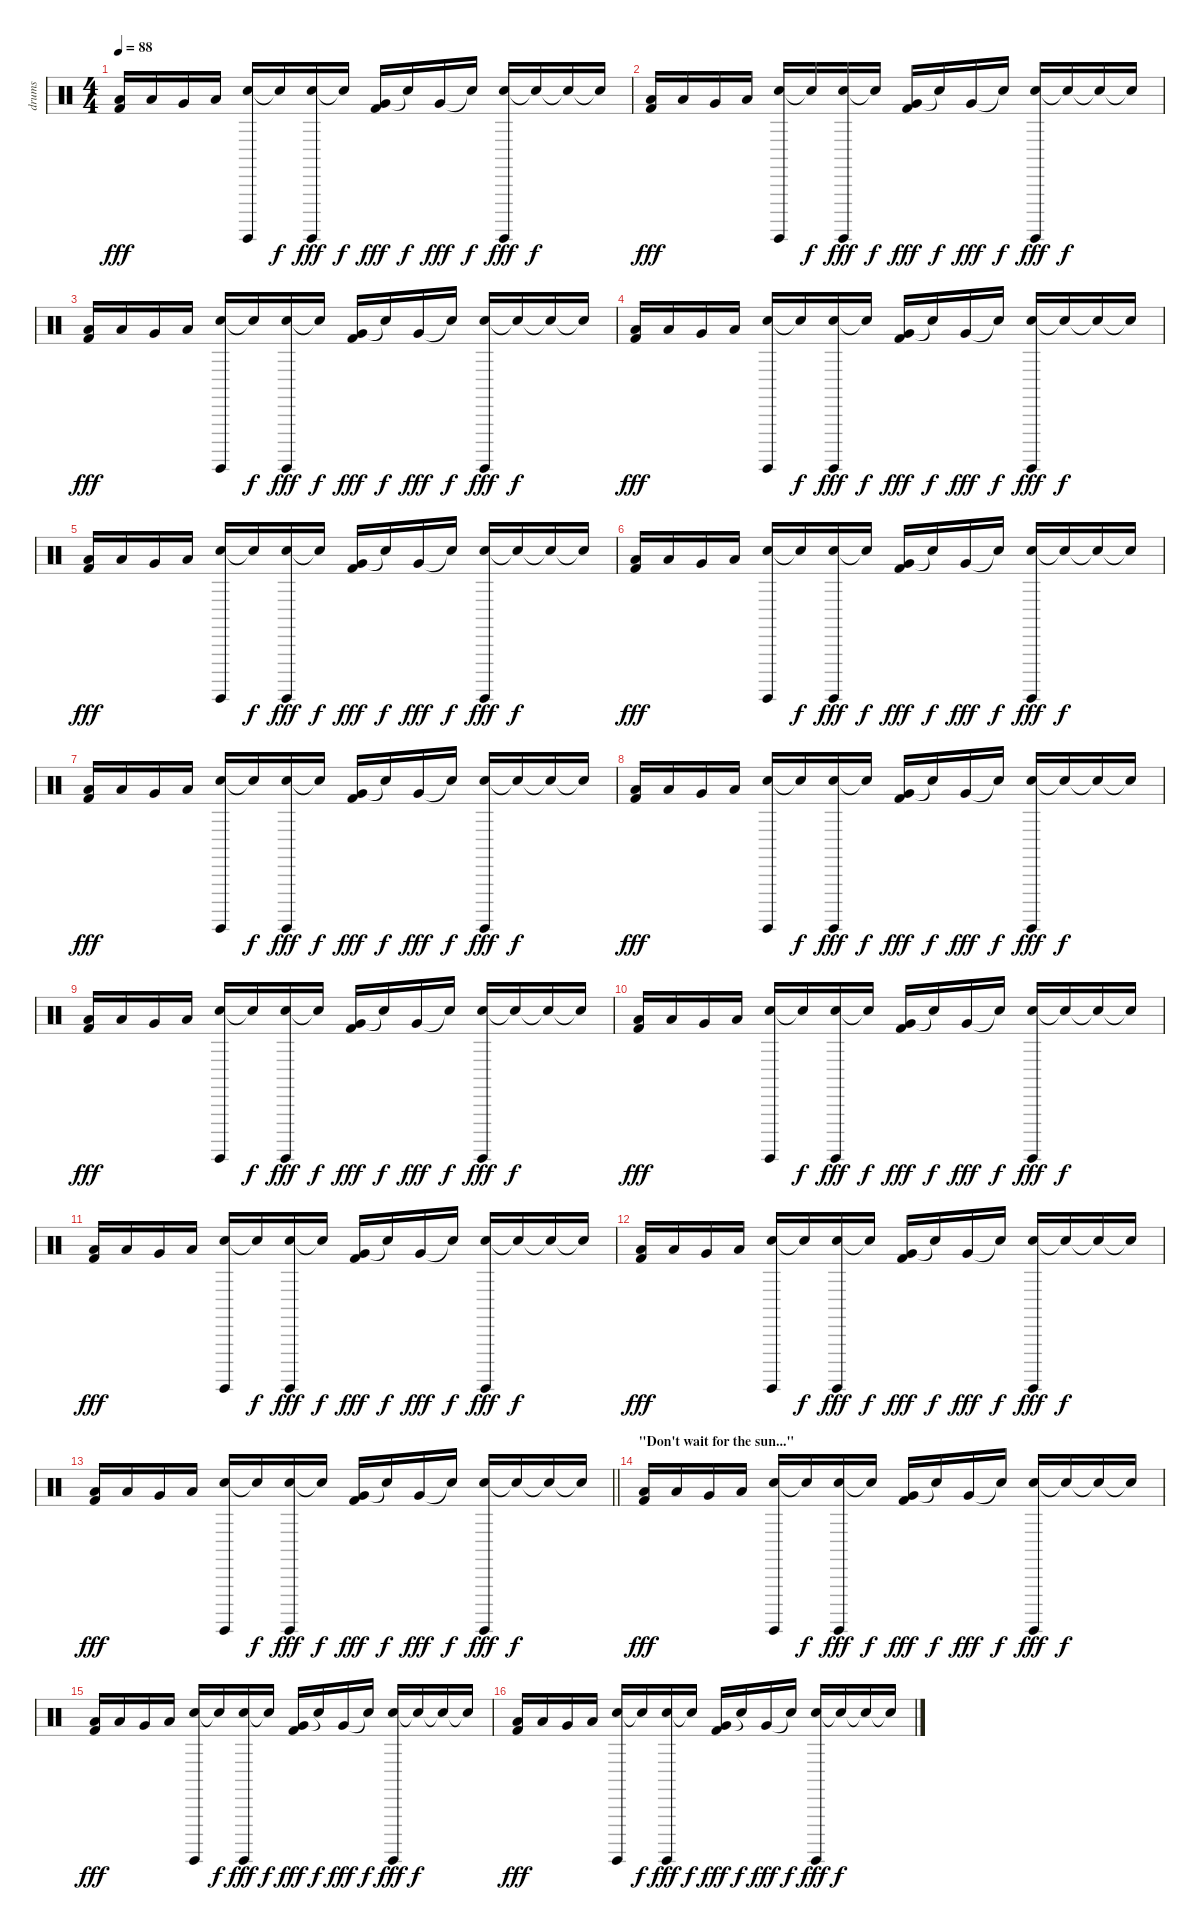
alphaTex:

\track ("drums" "drums") {instrument percussion}
\staff {score}
\articulation defaults
\ts (4 4)
\tempo 88
\clef neutral
\ks c
("Low Tom (hit)" "Kick (hit) 2").16{dy fff} "Low Tom (hit)".16 "Very Low Tom (hit)".16 "Low Tom (hit)".16 ("Electric Snare (hit)" "Surdo (hit)").16 "Snare (hit)"{t}.16{dy f} ("Electric Snare (hit)" "Surdo (hit)").16{dy fff} "Snare (hit)"{t}.16{dy f} ("Very Low Tom (hit)" "Kick (hit) 2").16{dy fff} "Snare (hit)"{t}.16{dy f} "Very Low Tom (hit)".16{dy fff} "Snare (hit)"{t}.16{dy f} ("Electric Snare (hit)" "Surdo (hit)").16{dy fff} "Snare (hit)"{t}.16{dy f} "Snare (hit)"{t}.16 "Snare (hit)"{t}.16 |
("Low Tom (hit)" "Kick (hit) 2").16{dy fff} "Low Tom (hit)".16 "Very Low Tom (hit)".16 "Low Tom (hit)".16 ("Electric Snare (hit)" "Surdo (hit)").16 "Snare (hit)"{t}.16{dy f} ("Electric Snare (hit)" "Surdo (hit)").16{dy fff} "Snare (hit)"{t}.16{dy f} ("Very Low Tom (hit)" "Kick (hit) 2").16{dy fff} "Snare (hit)"{t}.16{dy f} "Very Low Tom (hit)".16{dy fff} "Snare (hit)"{t}.16{dy f} ("Electric Snare (hit)" "Surdo (hit)").16{dy fff} "Snare (hit)"{t}.16{dy f} "Snare (hit)"{t}.16 "Snare (hit)"{t}.16 |
("Low Tom (hit)" "Kick (hit) 2").16{dy fff} "Low Tom (hit)".16 "Very Low Tom (hit)".16 "Low Tom (hit)".16 ("Electric Snare (hit)" "Surdo (hit)").16 "Snare (hit)"{t}.16{dy f} ("Electric Snare (hit)" "Surdo (hit)").16{dy fff} "Snare (hit)"{t}.16{dy f} ("Very Low Tom (hit)" "Kick (hit) 2").16{dy fff} "Snare (hit)"{t}.16{dy f} "Very Low Tom (hit)".16{dy fff} "Snare (hit)"{t}.16{dy f} ("Electric Snare (hit)" "Surdo (hit)").16{dy fff} "Snare (hit)"{t}.16{dy f} "Snare (hit)"{t}.16 "Snare (hit)"{t}.16 |
("Low Tom (hit)" "Kick (hit) 2").16{dy fff} "Low Tom (hit)".16 "Very Low Tom (hit)".16 "Low Tom (hit)".16 ("Electric Snare (hit)" "Surdo (hit)").16 "Snare (hit)"{t}.16{dy f} ("Electric Snare (hit)" "Surdo (hit)").16{dy fff} "Snare (hit)"{t}.16{dy f} ("Very Low Tom (hit)" "Kick (hit) 2").16{dy fff} "Snare (hit)"{t}.16{dy f} "Very Low Tom (hit)".16{dy fff} "Snare (hit)"{t}.16{dy f} ("Electric Snare (hit)" "Surdo (hit)").16{dy fff} "Snare (hit)"{t}.16{dy f} "Snare (hit)"{t}.16 "Snare (hit)"{t}.16 |
("Low Tom (hit)" "Kick (hit) 2").16{dy fff} "Low Tom (hit)".16 "Very Low Tom (hit)".16 "Low Tom (hit)".16 ("Electric Snare (hit)" "Surdo (hit)").16 "Snare (hit)"{t}.16{dy f} ("Electric Snare (hit)" "Surdo (hit)").16{dy fff} "Snare (hit)"{t}.16{dy f} ("Very Low Tom (hit)" "Kick (hit) 2").16{dy fff} "Snare (hit)"{t}.16{dy f} "Very Low Tom (hit)".16{dy fff} "Snare (hit)"{t}.16{dy f} ("Electric Snare (hit)" "Surdo (hit)").16{dy fff} "Snare (hit)"{t}.16{dy f} "Snare (hit)"{t}.16 "Snare (hit)"{t}.16 |
("Low Tom (hit)" "Kick (hit) 2").16{dy fff} "Low Tom (hit)".16 "Very Low Tom (hit)".16 "Low Tom (hit)".16 ("Electric Snare (hit)" "Surdo (hit)").16 "Snare (hit)"{t}.16{dy f} ("Electric Snare (hit)" "Surdo (hit)").16{dy fff} "Snare (hit)"{t}.16{dy f} ("Very Low Tom (hit)" "Kick (hit) 2").16{dy fff} "Snare (hit)"{t}.16{dy f} "Very Low Tom (hit)".16{dy fff} "Snare (hit)"{t}.16{dy f} ("Electric Snare (hit)" "Surdo (hit)").16{dy fff} "Snare (hit)"{t}.16{dy f} "Snare (hit)"{t}.16 "Snare (hit)"{t}.16 |
("Low Tom (hit)" "Kick (hit) 2").16{dy fff} "Low Tom (hit)".16 "Very Low Tom (hit)".16 "Low Tom (hit)".16 ("Electric Snare (hit)" "Surdo (hit)").16 "Snare (hit)"{t}.16{dy f} ("Electric Snare (hit)" "Surdo (hit)").16{dy fff} "Snare (hit)"{t}.16{dy f} ("Very Low Tom (hit)" "Kick (hit) 2").16{dy fff} "Snare (hit)"{t}.16{dy f} "Very Low Tom (hit)".16{dy fff} "Snare (hit)"{t}.16{dy f} ("Electric Snare (hit)" "Surdo (hit)").16{dy fff} "Snare (hit)"{t}.16{dy f} "Snare (hit)"{t}.16 "Snare (hit)"{t}.16 |
("Low Tom (hit)" "Kick (hit) 2").16{dy fff} "Low Tom (hit)".16 "Very Low Tom (hit)".16 "Low Tom (hit)".16 ("Electric Snare (hit)" "Surdo (hit)").16 "Snare (hit)"{t}.16{dy f} ("Electric Snare (hit)" "Surdo (hit)").16{dy fff} "Snare (hit)"{t}.16{dy f} ("Very Low Tom (hit)" "Kick (hit) 2").16{dy fff} "Snare (hit)"{t}.16{dy f} "Very Low Tom (hit)".16{dy fff} "Snare (hit)"{t}.16{dy f} ("Electric Snare (hit)" "Surdo (hit)").16{dy fff} "Snare (hit)"{t}.16{dy f} "Snare (hit)"{t}.16 "Snare (hit)"{t}.16 |
("Low Tom (hit)" "Kick (hit) 2").16{dy fff} "Low Tom (hit)".16 "Very Low Tom (hit)".16 "Low Tom (hit)".16 ("Electric Snare (hit)" "Surdo (hit)").16 "Snare (hit)"{t}.16{dy f} ("Electric Snare (hit)" "Surdo (hit)").16{dy fff} "Snare (hit)"{t}.16{dy f} ("Very Low Tom (hit)" "Kick (hit) 2").16{dy fff} "Snare (hit)"{t}.16{dy f} "Very Low Tom (hit)".16{dy fff} "Snare (hit)"{t}.16{dy f} ("Electric Snare (hit)" "Surdo (hit)").16{dy fff} "Snare (hit)"{t}.16{dy f} "Snare (hit)"{t}.16 "Snare (hit)"{t}.16 |
("Low Tom (hit)" "Kick (hit) 2").16{dy fff} "Low Tom (hit)".16 "Very Low Tom (hit)".16 "Low Tom (hit)".16 ("Electric Snare (hit)" "Surdo (hit)").16 "Snare (hit)"{t}.16{dy f} ("Electric Snare (hit)" "Surdo (hit)").16{dy fff} "Snare (hit)"{t}.16{dy f} ("Very Low Tom (hit)" "Kick (hit) 2").16{dy fff} "Snare (hit)"{t}.16{dy f} "Very Low Tom (hit)".16{dy fff} "Snare (hit)"{t}.16{dy f} ("Electric Snare (hit)" "Surdo (hit)").16{dy fff} "Snare (hit)"{t}.16{dy f} "Snare (hit)"{t}.16 "Snare (hit)"{t}.16 |
("Low Tom (hit)" "Kick (hit) 2").16{dy fff} "Low Tom (hit)".16 "Very Low Tom (hit)".16 "Low Tom (hit)".16 ("Electric Snare (hit)" "Surdo (hit)").16 "Snare (hit)"{t}.16{dy f} ("Electric Snare (hit)" "Surdo (hit)").16{dy fff} "Snare (hit)"{t}.16{dy f} ("Very Low Tom (hit)" "Kick (hit) 2").16{dy fff} "Snare (hit)"{t}.16{dy f} "Very Low Tom (hit)".16{dy fff} "Snare (hit)"{t}.16{dy f} ("Electric Snare (hit)" "Surdo (hit)").16{dy fff} "Snare (hit)"{t}.16{dy f} "Snare (hit)"{t}.16 "Snare (hit)"{t}.16 |
("Low Tom (hit)" "Kick (hit) 2").16{dy fff} "Low Tom (hit)".16 "Very Low Tom (hit)".16 "Low Tom (hit)".16 ("Electric Snare (hit)" "Surdo (hit)").16 "Snare (hit)"{t}.16{dy f} ("Electric Snare (hit)" "Surdo (hit)").16{dy fff} "Snare (hit)"{t}.16{dy f} ("Very Low Tom (hit)" "Kick (hit) 2").16{dy fff} "Snare (hit)"{t}.16{dy f} "Very Low Tom (hit)".16{dy fff} "Snare (hit)"{t}.16{dy f} ("Electric Snare (hit)" "Surdo (hit)").16{dy fff} "Snare (hit)"{t}.16{dy f} "Snare (hit)"{t}.16 "Snare (hit)"{t}.16 |
\barLineRight lightlight
("Low Tom (hit)" "Kick (hit) 2").16{dy fff} "Low Tom (hit)".16 "Very Low Tom (hit)".16 "Low Tom (hit)".16 ("Electric Snare (hit)" "Surdo (hit)").16 "Snare (hit)"{t}.16{dy f} ("Electric Snare (hit)" "Surdo (hit)").16{dy fff} "Snare (hit)"{t}.16{dy f} ("Very Low Tom (hit)" "Kick (hit) 2").16{dy fff} "Snare (hit)"{t}.16{dy f} "Very Low Tom (hit)".16{dy fff} "Snare (hit)"{t}.16{dy f} ("Electric Snare (hit)" "Surdo (hit)").16{dy fff} "Snare (hit)"{t}.16{dy f} "Snare (hit)"{t}.16 "Snare (hit)"{t}.16 |
\section ("" "\"Don't wait for the sun...\"")
("Low Tom (hit)" "Kick (hit) 2").16{dy fff} "Low Tom (hit)".16 "Very Low Tom (hit)".16 "Low Tom (hit)".16 ("Electric Snare (hit)" "Surdo (hit)").16 "Snare (hit)"{t}.16{dy f} ("Electric Snare (hit)" "Surdo (hit)").16{dy fff} "Snare (hit)"{t}.16{dy f} ("Very Low Tom (hit)" "Kick (hit) 2").16{dy fff} "Snare (hit)"{t}.16{dy f} "Very Low Tom (hit)".16{dy fff} "Snare (hit)"{t}.16{dy f} ("Electric Snare (hit)" "Surdo (hit)").16{dy fff} "Snare (hit)"{t}.16{dy f} "Snare (hit)"{t}.16 "Snare (hit)"{t}.16 |
("Low Tom (hit)" "Kick (hit) 2").16{dy fff} "Low Tom (hit)".16 "Very Low Tom (hit)".16 "Low Tom (hit)".16 ("Electric Snare (hit)" "Surdo (hit)").16 "Snare (hit)"{t}.16{dy f} ("Electric Snare (hit)" "Surdo (hit)").16{dy fff} "Snare (hit)"{t}.16{dy f} ("Very Low Tom (hit)" "Kick (hit) 2").16{dy fff} "Snare (hit)"{t}.16{dy f} "Very Low Tom (hit)".16{dy fff} "Snare (hit)"{t}.16{dy f} ("Electric Snare (hit)" "Surdo (hit)").16{dy fff} "Snare (hit)"{t}.16{dy f} "Snare (hit)"{t}.16 "Snare (hit)"{t}.16 |
("Low Tom (hit)" "Kick (hit) 2").16{dy fff} "Low Tom (hit)".16 "Very Low Tom (hit)".16 "Low Tom (hit)".16 ("Electric Snare (hit)" "Surdo (hit)").16 "Snare (hit)"{t}.16{dy f} ("Electric Snare (hit)" "Surdo (hit)").16{dy fff} "Snare (hit)"{t}.16{dy f} ("Very Low Tom (hit)" "Kick (hit) 2").16{dy fff} "Snare (hit)"{t}.16{dy f} "Very Low Tom (hit)".16{dy fff} "Snare (hit)"{t}.16{dy f} ("Electric Snare (hit)" "Surdo (hit)").16{dy fff} "Snare (hit)"{t}.16{dy f} "Snare (hit)"{t}.16 "Snare (hit)"{t}.16
